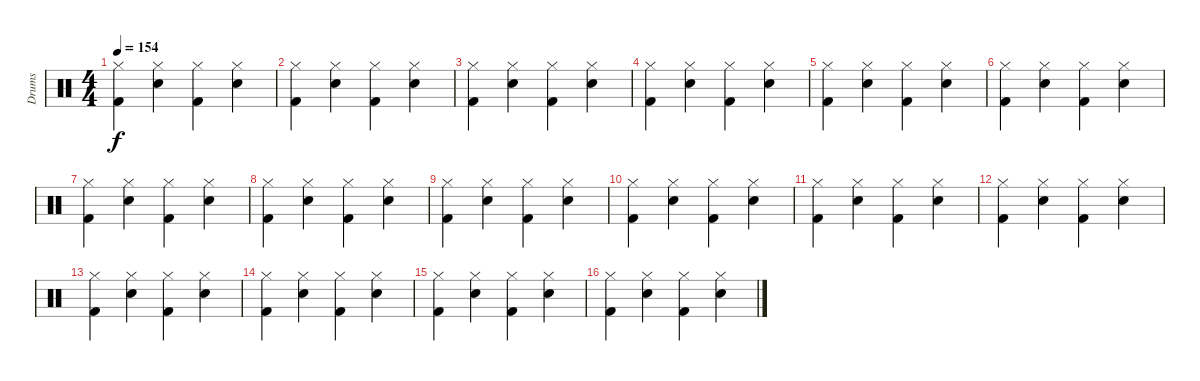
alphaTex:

\track ("Drums" "Drums") {instrument percussion}
\staff {score}
\articulation defaults
\ts (4 4)
\tempo 154
\clef neutral
\ks c
("Kick (hit) 2" "Hi-Hat (closed)").4{dy f} ("Electric Snare (hit)" "Hi-Hat (closed)").4 ("Kick (hit) 2" "Hi-Hat (closed)").4 ("Electric Snare (hit)" "Hi-Hat (closed)").4 |
("Kick (hit) 2" "Hi-Hat (closed)").4 ("Electric Snare (hit)" "Hi-Hat (closed)").4 ("Kick (hit) 2" "Hi-Hat (closed)").4 ("Electric Snare (hit)" "Hi-Hat (closed)").4 |
("Kick (hit) 2" "Hi-Hat (closed)").4 ("Electric Snare (hit)" "Hi-Hat (closed)").4 ("Kick (hit) 2" "Hi-Hat (closed)").4 ("Electric Snare (hit)" "Hi-Hat (closed)").4 |
("Kick (hit) 2" "Hi-Hat (closed)").4 ("Electric Snare (hit)" "Hi-Hat (closed)").4 ("Kick (hit) 2" "Hi-Hat (closed)").4 ("Electric Snare (hit)" "Hi-Hat (closed)").4 |
("Kick (hit) 2" "Hi-Hat (closed)").4 ("Electric Snare (hit)" "Hi-Hat (closed)").4 ("Kick (hit) 2" "Hi-Hat (closed)").4 ("Electric Snare (hit)" "Hi-Hat (closed)").4 |
("Kick (hit) 2" "Hi-Hat (closed)").4 ("Electric Snare (hit)" "Hi-Hat (closed)").4 ("Kick (hit) 2" "Hi-Hat (closed)").4 ("Electric Snare (hit)" "Hi-Hat (closed)").4 |
("Kick (hit) 2" "Hi-Hat (closed)").4 ("Electric Snare (hit)" "Hi-Hat (closed)").4 ("Kick (hit) 2" "Hi-Hat (closed)").4 ("Electric Snare (hit)" "Hi-Hat (closed)").4 |
("Kick (hit) 2" "Hi-Hat (closed)").4 ("Electric Snare (hit)" "Hi-Hat (closed)").4 ("Kick (hit) 2" "Hi-Hat (closed)").4 ("Electric Snare (hit)" "Hi-Hat (closed)").4 |
("Kick (hit) 2" "Hi-Hat (closed)").4 ("Electric Snare (hit)" "Hi-Hat (closed)").4 ("Kick (hit) 2" "Hi-Hat (closed)").4 ("Electric Snare (hit)" "Hi-Hat (closed)").4 |
("Kick (hit) 2" "Hi-Hat (closed)").4 ("Electric Snare (hit)" "Hi-Hat (closed)").4 ("Kick (hit) 2" "Hi-Hat (closed)").4 ("Electric Snare (hit)" "Hi-Hat (closed)").4 |
("Kick (hit) 2" "Hi-Hat (closed)").4 ("Electric Snare (hit)" "Hi-Hat (closed)").4 ("Kick (hit) 2" "Hi-Hat (closed)").4 ("Electric Snare (hit)" "Hi-Hat (closed)").4 |
("Kick (hit) 2" "Hi-Hat (closed)").4 ("Electric Snare (hit)" "Hi-Hat (closed)").4 ("Kick (hit) 2" "Hi-Hat (closed)").4 ("Electric Snare (hit)" "Hi-Hat (closed)").4 |
("Kick (hit) 2" "Hi-Hat (closed)").4 ("Electric Snare (hit)" "Hi-Hat (closed)").4 ("Kick (hit) 2" "Hi-Hat (closed)").4 ("Electric Snare (hit)" "Hi-Hat (closed)").4 |
("Kick (hit) 2" "Hi-Hat (closed)").4 ("Electric Snare (hit)" "Hi-Hat (closed)").4 ("Kick (hit) 2" "Hi-Hat (closed)").4 ("Electric Snare (hit)" "Hi-Hat (closed)").4 |
("Kick (hit) 2" "Hi-Hat (closed)").4 ("Electric Snare (hit)" "Hi-Hat (closed)").4 ("Kick (hit) 2" "Hi-Hat (closed)").4 ("Electric Snare (hit)" "Hi-Hat (closed)").4 |
("Kick (hit) 2" "Hi-Hat (closed)").4 ("Electric Snare (hit)" "Hi-Hat (closed)").4 ("Kick (hit) 2" "Hi-Hat (closed)").4 ("Electric Snare (hit)" "Hi-Hat (closed)").4
